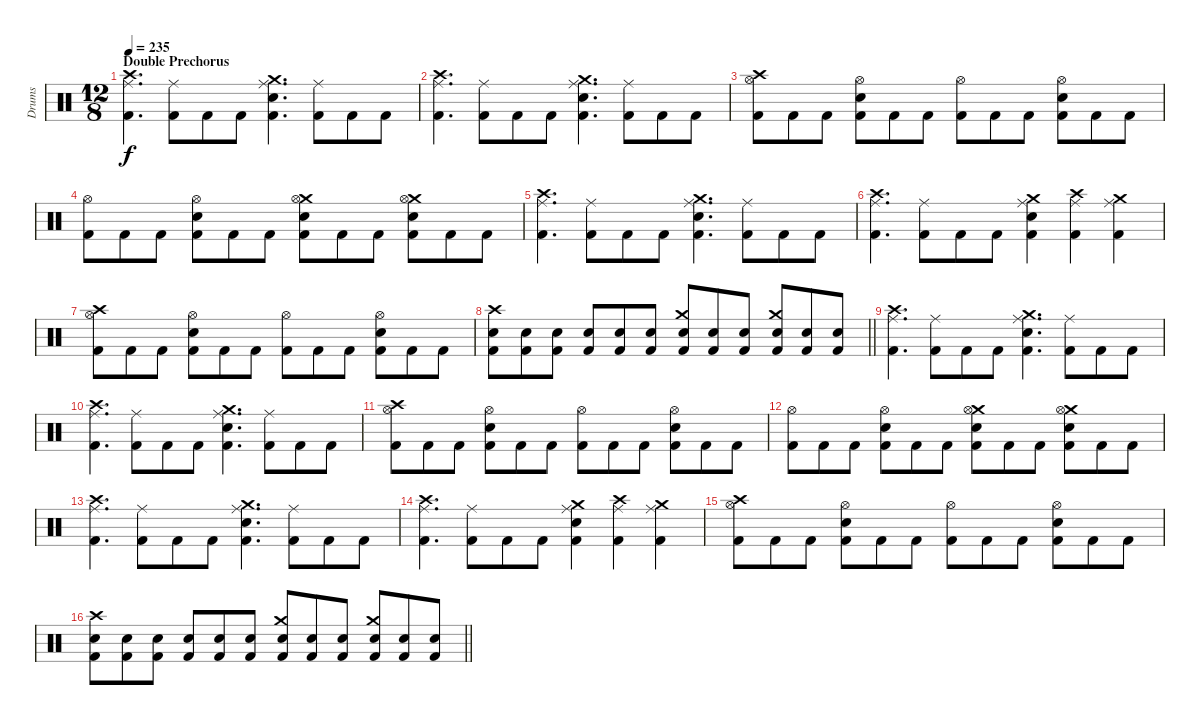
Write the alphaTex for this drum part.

\track ("Drums" "Drums") {instrument percussion}
\staff {score}
\articulation defaults
\ts (12 8)
\section ("" "Double Prechorus")
\tempo 235
\clef neutral
\ks c
("Crash high (hit)" "Ride (middle)" "Kick (hit) 2").4{d dy f} ("Ride (middle)" "Kick (hit) 2").8 "Kick (hit) 2".8 "Kick (hit) 2".8 ("Crash medium (hit)" "Ride (middle)" "Snare (hit) 2" "Kick (hit) 2").4{d} ("Ride (middle)" "Kick (hit) 2").8 "Kick (hit) 2".8 "Kick (hit) 2".8 |
("Crash high (hit)" "Ride (middle)" "Kick (hit) 2").4{d} ("Ride (middle)" "Kick (hit) 2").8 "Kick (hit) 2".8 "Kick (hit) 2".8 ("Crash medium (hit)" "Ride (middle)" "Snare (hit) 2" "Kick (hit) 2").4{d} ("Ride (middle)" "Kick (hit) 2").8 "Kick (hit) 2".8 "Kick (hit) 2".8 |
("Crash high (hit)" "Hi-Hat (open)" "Kick (hit) 2").8 "Kick (hit) 2".8 "Kick (hit) 2".8 ("Hi-Hat (open)" "Snare (hit) 2" "Kick (hit) 2").8 "Kick (hit) 2".8 "Kick (hit) 2".8 ("Hi-Hat (open)" "Kick (hit) 2").8 "Kick (hit) 2".8 "Kick (hit) 2".8 ("Hi-Hat (open)" "Snare (hit) 2" "Kick (hit) 2").8 "Kick (hit) 2".8 "Kick (hit) 2".8 |
("Hi-Hat (open)" "Kick (hit) 2").8 "Kick (hit) 2".8 "Kick (hit) 2".8 ("Hi-Hat (open)" "Snare (hit) 2" "Kick (hit) 2").8 "Kick (hit) 2".8 "Kick (hit) 2".8 ("Crash medium (hit)" "Hi-Hat (open)" "Snare (hit) 2" "Kick (hit) 2").8 "Kick (hit) 2".8 "Kick (hit) 2".8 ("Crash medium (hit)" "Hi-Hat (open)" "Snare (hit) 2" "Kick (hit) 2").8 "Kick (hit) 2".8 "Kick (hit) 2".8 |
("Crash high (hit)" "Ride (middle)" "Kick (hit) 2").4{d} ("Ride (middle)" "Kick (hit) 2").8 "Kick (hit) 2".8 "Kick (hit) 2".8 ("Crash medium (hit)" "Ride (middle)" "Snare (hit) 2" "Kick (hit) 2").4{d} ("Ride (middle)" "Kick (hit) 2").8 "Kick (hit) 2".8 "Kick (hit) 2".8 |
("Crash high (hit)" "Ride (middle)" "Kick (hit) 2").4{d} ("Ride (middle)" "Kick (hit) 2").8 "Kick (hit) 2".8 "Kick (hit) 2".8 ("Crash medium (hit)" "Ride (middle)" "Snare (hit) 2" "Kick (hit) 2").4 ("Crash high (hit)" "Ride (middle)" "Kick (hit) 2").4 ("Crash medium (hit)" "Ride (middle)" "Kick (hit) 2").4 |
("Crash high (hit)" "Hi-Hat (open)" "Kick (hit) 2").8 "Kick (hit) 2".8 "Kick (hit) 2".8 ("Hi-Hat (open)" "Snare (hit) 2" "Kick (hit) 2").8 "Kick (hit) 2".8 "Kick (hit) 2".8 ("Hi-Hat (open)" "Kick (hit) 2").8 "Kick (hit) 2".8 "Kick (hit) 2".8 ("Hi-Hat (open)" "Snare (hit) 2" "Kick (hit) 2").8 "Kick (hit) 2".8 "Kick (hit) 2".8 |
\barLineRight lightlight
("Crash high (hit)" "Snare (hit) 2" "Kick (hit) 2").8 ("Snare (hit) 2" "Kick (hit) 2").8 ("Snare (hit) 2" "Kick (hit) 2").8 ("Snare (hit) 2" "Kick (hit) 2").8 ("Snare (hit) 2" "Kick (hit) 2").8 ("Snare (hit) 2" "Kick (hit) 2").8 ("Crash medium (hit)" "Snare (hit) 2" "Kick (hit) 2").8 ("Snare (hit) 2" "Kick (hit) 2").8 ("Snare (hit) 2" "Kick (hit) 2").8 ("Crash medium (hit)" "Snare (hit) 2" "Kick (hit) 2").8 ("Snare (hit) 2" "Kick (hit) 2").8 ("Snare (hit) 2" "Kick (hit) 2").8 |
("Crash high (hit)" "Ride (middle)" "Kick (hit) 2").4{d} ("Ride (middle)" "Kick (hit) 2").8 "Kick (hit) 2".8 "Kick (hit) 2".8 ("Crash medium (hit)" "Ride (middle)" "Snare (hit) 2" "Kick (hit) 2").4{d} ("Ride (middle)" "Kick (hit) 2").8 "Kick (hit) 2".8 "Kick (hit) 2".8 |
("Crash high (hit)" "Ride (middle)" "Kick (hit) 2").4{d} ("Ride (middle)" "Kick (hit) 2").8 "Kick (hit) 2".8 "Kick (hit) 2".8 ("Crash medium (hit)" "Ride (middle)" "Snare (hit) 2" "Kick (hit) 2").4{d} ("Ride (middle)" "Kick (hit) 2").8 "Kick (hit) 2".8 "Kick (hit) 2".8 |
("Crash high (hit)" "Hi-Hat (open)" "Kick (hit) 2").8 "Kick (hit) 2".8 "Kick (hit) 2".8 ("Hi-Hat (open)" "Snare (hit) 2" "Kick (hit) 2").8 "Kick (hit) 2".8 "Kick (hit) 2".8 ("Hi-Hat (open)" "Kick (hit) 2").8 "Kick (hit) 2".8 "Kick (hit) 2".8 ("Hi-Hat (open)" "Snare (hit) 2" "Kick (hit) 2").8 "Kick (hit) 2".8 "Kick (hit) 2".8 |
("Hi-Hat (open)" "Kick (hit) 2").8 "Kick (hit) 2".8 "Kick (hit) 2".8 ("Hi-Hat (open)" "Snare (hit) 2" "Kick (hit) 2").8 "Kick (hit) 2".8 "Kick (hit) 2".8 ("Crash medium (hit)" "Hi-Hat (open)" "Snare (hit) 2" "Kick (hit) 2").8 "Kick (hit) 2".8 "Kick (hit) 2".8 ("Crash medium (hit)" "Hi-Hat (open)" "Snare (hit) 2" "Kick (hit) 2").8 "Kick (hit) 2".8 "Kick (hit) 2".8 |
("Crash high (hit)" "Ride (middle)" "Kick (hit) 2").4{d} ("Ride (middle)" "Kick (hit) 2").8 "Kick (hit) 2".8 "Kick (hit) 2".8 ("Crash medium (hit)" "Ride (middle)" "Snare (hit) 2" "Kick (hit) 2").4{d} ("Ride (middle)" "Kick (hit) 2").8 "Kick (hit) 2".8 "Kick (hit) 2".8 |
("Crash high (hit)" "Ride (middle)" "Kick (hit) 2").4{d} ("Ride (middle)" "Kick (hit) 2").8 "Kick (hit) 2".8 "Kick (hit) 2".8 ("Crash medium (hit)" "Ride (middle)" "Snare (hit) 2" "Kick (hit) 2").4 ("Crash high (hit)" "Ride (middle)" "Kick (hit) 2").4 ("Crash medium (hit)" "Ride (middle)" "Kick (hit) 2").4 |
("Crash high (hit)" "Hi-Hat (open)" "Kick (hit) 2").8 "Kick (hit) 2".8 "Kick (hit) 2".8 ("Hi-Hat (open)" "Snare (hit) 2" "Kick (hit) 2").8 "Kick (hit) 2".8 "Kick (hit) 2".8 ("Hi-Hat (open)" "Kick (hit) 2").8 "Kick (hit) 2".8 "Kick (hit) 2".8 ("Hi-Hat (open)" "Snare (hit) 2" "Kick (hit) 2").8 "Kick (hit) 2".8 "Kick (hit) 2".8 |
\barLineRight lightlight
("Crash high (hit)" "Snare (hit) 2" "Kick (hit) 2").8 ("Snare (hit) 2" "Kick (hit) 2").8 ("Snare (hit) 2" "Kick (hit) 2").8 ("Snare (hit) 2" "Kick (hit) 2").8 ("Snare (hit) 2" "Kick (hit) 2").8 ("Snare (hit) 2" "Kick (hit) 2").8 ("Crash medium (hit)" "Snare (hit) 2" "Kick (hit) 2").8 ("Snare (hit) 2" "Kick (hit) 2").8 ("Snare (hit) 2" "Kick (hit) 2").8 ("Crash medium (hit)" "Snare (hit) 2" "Kick (hit) 2").8 ("Snare (hit) 2" "Kick (hit) 2").8 ("Snare (hit) 2" "Kick (hit) 2").8
